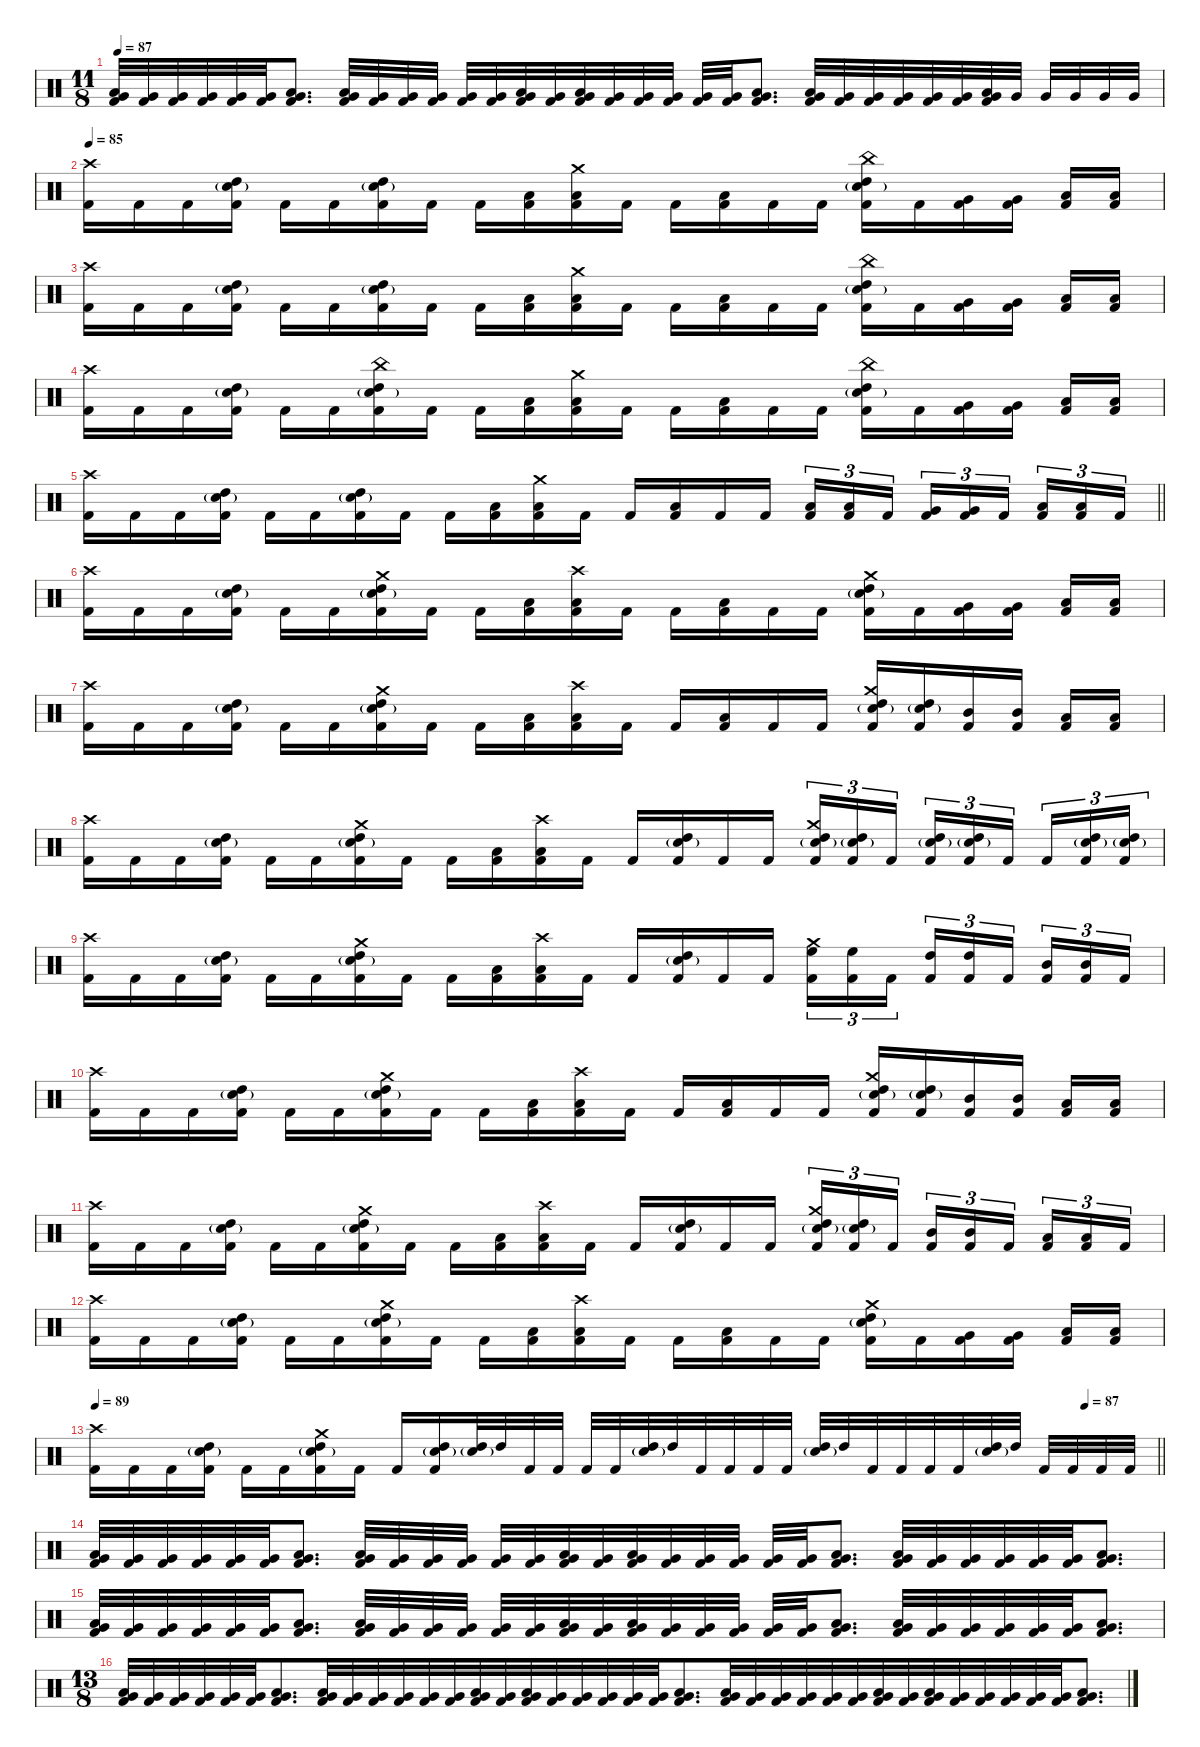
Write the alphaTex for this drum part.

\defaultSystemsLayout 4
\hideDynamics
\bracketExtendMode nobrackets
\singleTrackTrackNamePolicy hidden
\multiTrackTrackNamePolicy hidden
\otherSystemsTrackNameOrientation horizontal
\track ("Drums" "drm.") {instrument percussion}
\staff {score}
\articulation defaults
\ts (11 8)
\tempo 87
\clef neutral
\ks c
("Very Low Tom (hit)" "Low Floor Tom (hit)" "Kick (hit) 2").32{dy f beam Up} ("Very Low Tom (hit)" "Kick (hit) 2").32{beam Up} ("Very Low Tom (hit)" "Kick (hit) 2").32{beam Up} ("Very Low Tom (hit)" "Kick (hit) 2").32{beam Up} ("Very Low Tom (hit)" "Kick (hit) 2").32{beam Up} ("Very Low Tom (hit)" "Kick (hit) 2").32{beam Up} ("Very Low Tom (hit)" "Low Floor Tom (hit)" "Kick (hit) 2").8{d beam Up} ("Very Low Tom (hit)" "Low Floor Tom (hit)" "Kick (hit) 2").32{beam Up} ("Very Low Tom (hit)" "Kick (hit) 2").32{beam Up} ("Very Low Tom (hit)" "Kick (hit) 2").32{beam Up} ("Very Low Tom (hit)" "Kick (hit) 2").32{beam Up} ("Very Low Tom (hit)" "Kick (hit) 2").32{beam Up} ("Very Low Tom (hit)" "Kick (hit) 2").32{beam Up} ("Very Low Tom (hit)" "Low Floor Tom (hit)" "Kick (hit) 2").32{beam Up} ("Very Low Tom (hit)" "Kick (hit) 2").32{beam Up} ("Very Low Tom (hit)" "Low Floor Tom (hit)" "Kick (hit) 2").32{beam Up} ("Very Low Tom (hit)" "Kick (hit) 2").32{beam Up} ("Very Low Tom (hit)" "Kick (hit) 2").32{beam Up} ("Very Low Tom (hit)" "Kick (hit) 2").32{beam Up} ("Very Low Tom (hit)" "Kick (hit) 2").32{beam Up} ("Very Low Tom (hit)" "Kick (hit) 2").32{beam Up} ("Very Low Tom (hit)" "Low Floor Tom (hit)" "Kick (hit) 2").8{d beam Up} ("Very Low Tom (hit)" "Low Floor Tom (hit)" "Kick (hit) 2").32{beam Up} ("Very Low Tom (hit)" "Kick (hit) 2").32{beam Up} ("Very Low Tom (hit)" "Kick (hit) 2").32{beam Up} ("Very Low Tom (hit)" "Kick (hit) 2").32{beam Up} ("Very Low Tom (hit)" "Kick (hit) 2").32{beam Up} ("Very Low Tom (hit)" "Kick (hit) 2").32{beam Up} ("Very Low Tom (hit)" "Low Floor Tom (hit)" "Kick (hit) 2").32{beam Up} "Very Low Tom (hit)".32{beam Up} "Very Low Tom (hit)".32{beam Up} "Very Low Tom (hit)".32{beam Up} "Very Low Tom (hit)".32{beam Up} "Very Low Tom (hit)".32{beam Up} |
\tempo 85
("Crash high (hit)" "Kick (hit) 2").16{beam Down} "Kick (hit) 2".16{beam Down} "Kick (hit) 2".16{beam Down} ("High Tom (hit)" "Snare (hit) 2"{g} "Kick (hit) 2").16{beam Down} "Kick (hit) 2".16{beam Down} "Kick (hit) 2".16{beam Down} ("High Tom (hit)" "Snare (hit) 2"{g} "Kick (hit) 2").16{beam Down} "Kick (hit) 2".16{beam Down} "Kick (hit) 2".16{beam Down} ("Low Tom (hit)" "Kick (hit) 2").16{beam Down} ("Crash medium (hit)" "Low Tom (hit)" "Kick (hit) 2").16{beam Down} "Kick (hit) 2".16{beam Down} "Kick (hit) 2".16{beam Down} ("Low Tom (hit)" "Kick (hit) 2").16{beam Down} "Kick (hit) 2".16{beam Down} "Kick (hit) 2".16{beam Down} ("China (hit)" "High Tom (hit)" "Snare (hit) 2"{g} "Kick (hit) 2").16{beam Down} "Kick (hit) 2".16{beam Down} ("Very Low Tom (hit)" "Kick (hit) 2").16{beam Up} ("Very Low Tom (hit)" "Kick (hit) 2").16{beam Up} ("Low Floor Tom (hit)" "Kick (hit) 2").16{beam Up} ("Low Floor Tom (hit)" "Kick (hit) 2").16{beam Up} |
("Crash high (hit)" "Kick (hit) 2").16{beam Down} "Kick (hit) 2".16{beam Down} "Kick (hit) 2".16{beam Down} ("High Tom (hit)" "Snare (hit) 2"{g} "Kick (hit) 2").16{beam Down} "Kick (hit) 2".16{beam Down} "Kick (hit) 2".16{beam Down} ("High Tom (hit)" "Snare (hit) 2"{g} "Kick (hit) 2").16{beam Down} "Kick (hit) 2".16{beam Down} "Kick (hit) 2".16{beam Down} ("Low Tom (hit)" "Kick (hit) 2").16{beam Down} ("Crash medium (hit)" "Low Tom (hit)" "Kick (hit) 2").16{beam Down} "Kick (hit) 2".16{beam Down} "Kick (hit) 2".16{beam Down} ("Low Tom (hit)" "Kick (hit) 2").16{beam Down} "Kick (hit) 2".16{beam Down} "Kick (hit) 2".16{beam Down} ("China (hit)" "High Tom (hit)" "Snare (hit) 2"{g} "Kick (hit) 2").16{beam Down} "Kick (hit) 2".16{beam Down} ("Very Low Tom (hit)" "Kick (hit) 2").16{beam Up} ("Very Low Tom (hit)" "Kick (hit) 2").16{beam Up} ("Low Floor Tom (hit)" "Kick (hit) 2").16{beam Up} ("Low Floor Tom (hit)" "Kick (hit) 2").16{beam Up} |
("Crash high (hit)" "Kick (hit) 2").16{beam Down} "Kick (hit) 2".16{beam Down} "Kick (hit) 2".16{beam Down} ("High Tom (hit)" "Snare (hit) 2"{g} "Kick (hit) 2").16{beam Down} "Kick (hit) 2".16{beam Down} "Kick (hit) 2".16{beam Down} ("China (hit)" "High Tom (hit)" "Snare (hit) 2"{g} "Kick (hit) 2").16{beam Down} "Kick (hit) 2".16{beam Down} "Kick (hit) 2".16{beam Down} ("Low Tom (hit)" "Kick (hit) 2").16{beam Down} ("Crash medium (hit)" "Low Tom (hit)" "Kick (hit) 2").16{beam Down} "Kick (hit) 2".16{beam Down} "Kick (hit) 2".16{beam Down} ("Low Tom (hit)" "Kick (hit) 2").16{beam Down} "Kick (hit) 2".16{beam Down} "Kick (hit) 2".16{beam Down} ("China (hit)" "High Tom (hit)" "Snare (hit) 2"{g} "Kick (hit) 2").16{beam Down} "Kick (hit) 2".16{beam Down} ("Very Low Tom (hit)" "Kick (hit) 2").16{beam Up} ("Very Low Tom (hit)" "Kick (hit) 2").16{beam Up} ("Low Floor Tom (hit)" "Kick (hit) 2").16{beam Up} ("Low Floor Tom (hit)" "Kick (hit) 2").16{beam Up} |
\barLineRight lightlight
("Crash high (hit)" "Kick (hit) 2").16{beam Down} "Kick (hit) 2".16{beam Down} "Kick (hit) 2".16{beam Down} ("High Tom (hit)" "Snare (hit) 2"{g} "Kick (hit) 2").16{beam Down} "Kick (hit) 2".16{beam Down} "Kick (hit) 2".16{beam Down} ("High Tom (hit)" "Snare (hit) 2"{g} "Kick (hit) 2").16{beam Down} "Kick (hit) 2".16{beam Down} "Kick (hit) 2".16{beam Down} ("Low Tom (hit)" "Kick (hit) 2").16{beam Down} ("Crash medium (hit)" "Low Tom (hit)" "Kick (hit) 2").16{beam Down} "Kick (hit) 2".16{beam Down} "Kick (hit) 2".16{beam Up} ("Low Tom (hit)" "Kick (hit) 2").16{beam Up} "Kick (hit) 2".16{beam Up} "Kick (hit) 2".16{beam Up} ("Low Tom (hit)" "Kick (hit) 2").16{tu (3 2) beam Up} ("Low Tom (hit)" "Kick (hit) 2").16{tu (3 2) beam Up} "Kick (hit) 2".16{tu (3 2) beam Up} ("Very Low Tom (hit)" "Kick (hit) 2").16{tu (3 2) beam Up} ("Very Low Tom (hit)" "Kick (hit) 2").16{tu (3 2) beam Up} "Kick (hit) 2".16{tu (3 2) beam Up} ("Low Floor Tom (hit)" "Kick (hit) 2").16{tu (3 2) beam Up} ("Low Floor Tom (hit)" "Kick (hit) 2").16{tu (3 2) beam Up} "Kick (hit) 2".16{tu (3 2) beam Up} |
\section ("" "")
("Crash high (hit)" "Kick (hit) 2").16{beam Down} "Kick (hit) 2".16{beam Down} "Kick (hit) 2".16{beam Down} ("High Tom (hit)" "Snare (hit) 2"{g} "Kick (hit) 2").16{beam Down} "Kick (hit) 2".16{beam Down} "Kick (hit) 2".16{beam Down} ("Crash medium (hit)" "High Tom (hit)" "Snare (hit) 2"{g} "Kick (hit) 2").16{beam Down} "Kick (hit) 2".16{beam Down} "Kick (hit) 2".16{beam Down} ("Low Tom (hit)" "Kick (hit) 2").16{beam Down} ("Crash high (hit)" "Low Tom (hit)" "Kick (hit) 2").16{beam Down} "Kick (hit) 2".16{beam Down} "Kick (hit) 2".16{beam Down} ("Low Tom (hit)" "Kick (hit) 2").16{beam Down} "Kick (hit) 2".16{beam Down} "Kick (hit) 2".16{beam Down} ("Crash medium (hit)" "High Tom (hit)" "Snare (hit) 2"{g} "Kick (hit) 2").16{beam Down} "Kick (hit) 2".16{beam Down} ("Very Low Tom (hit)" "Kick (hit) 2").16{beam Up} ("Very Low Tom (hit)" "Kick (hit) 2").16{beam Up} ("Low Floor Tom (hit)" "Kick (hit) 2").16{beam Up} ("Low Floor Tom (hit)" "Kick (hit) 2").16{beam Up} |
("Crash high (hit)" "Kick (hit) 2").16{beam Down} "Kick (hit) 2".16{beam Down} "Kick (hit) 2".16{beam Down} ("High Tom (hit)" "Snare (hit) 2"{g} "Kick (hit) 2").16{beam Down} "Kick (hit) 2".16{beam Down} "Kick (hit) 2".16{beam Down} ("Crash medium (hit)" "High Tom (hit)" "Snare (hit) 2"{g} "Kick (hit) 2").16{beam Down} "Kick (hit) 2".16{beam Down} "Kick (hit) 2".16{beam Down} ("Low Tom (hit)" "Kick (hit) 2").16{beam Down} ("Crash high (hit)" "Low Tom (hit)" "Kick (hit) 2").16{beam Down} "Kick (hit) 2".16{beam Down} "Kick (hit) 2".16{beam Up} ("Low Tom (hit)" "Kick (hit) 2").16{beam Up} "Kick (hit) 2".16{beam Up} "Kick (hit) 2".16{beam Up} ("Crash medium (hit)" "High Tom (hit)" "Snare (hit) 2"{g} "Kick (hit) 2").16{beam Up} ("High Tom (hit)" "Snare (hit) 2"{g} "Kick (hit) 2").16{beam Up} ("Mid Tom (hit)" "Kick (hit) 2").16{beam Up} ("Mid Tom (hit)" "Kick (hit) 2").16{beam Up} ("Low Tom (hit)" "Kick (hit) 2").16{beam Up} ("Low Tom (hit)" "Kick (hit) 2").16{beam Up} |
("Crash high (hit)" "Kick (hit) 2").16{beam Down} "Kick (hit) 2".16{beam Down} "Kick (hit) 2".16{beam Down} ("High Tom (hit)" "Snare (hit) 2"{g} "Kick (hit) 2").16{beam Down} "Kick (hit) 2".16{beam Down} "Kick (hit) 2".16{beam Down} ("Crash medium (hit)" "High Tom (hit)" "Snare (hit) 2"{g} "Kick (hit) 2").16{beam Down} "Kick (hit) 2".16{beam Down} "Kick (hit) 2".16{beam Down} ("Low Tom (hit)" "Kick (hit) 2").16{beam Down} ("Crash high (hit)" "Low Tom (hit)" "Kick (hit) 2").16{beam Down} "Kick (hit) 2".16{beam Down} "Kick (hit) 2".16{beam Up} ("High Tom (hit)" "Snare (hit) 2"{g} "Kick (hit) 2").16{beam Up} "Kick (hit) 2".16{beam Up} "Kick (hit) 2".16{beam Up} ("Crash medium (hit)" "High Tom (hit)" "Snare (hit) 2"{g} "Kick (hit) 2").16{tu (3 2) beam Up} ("High Tom (hit)" "Snare (hit) 2"{g} "Kick (hit) 2").16{tu (3 2) beam Up} "Kick (hit) 2".16{tu (3 2) beam Up} ("High Tom (hit)" "Snare (hit) 2"{g} "Kick (hit) 2").16{tu (3 2) beam Up} ("High Tom (hit)" "Snare (hit) 2"{g} "Kick (hit) 2").16{tu (3 2) beam Up} "Kick (hit) 2".16{tu (3 2) beam Up} "Kick (hit) 2".16{tu (3 2) beam Up} ("High Tom (hit)" "Snare (hit) 2"{g} "Kick (hit) 2").16{tu (3 2) beam Up} ("High Tom (hit)" "Snare (hit) 2"{g} "Kick (hit) 2").16{tu (3 2) beam Up} |
("Crash high (hit)" "Kick (hit) 2").16{beam Down} "Kick (hit) 2".16{beam Down} "Kick (hit) 2".16{beam Down} ("High Tom (hit)" "Snare (hit) 2"{g} "Kick (hit) 2").16{beam Down} "Kick (hit) 2".16{beam Down} "Kick (hit) 2".16{beam Down} ("Crash medium (hit)" "High Tom (hit)" "Snare (hit) 2"{g} "Kick (hit) 2").16{beam Down} "Kick (hit) 2".16{beam Down} "Kick (hit) 2".16{beam Down} ("Low Tom (hit)" "Kick (hit) 2").16{beam Down} ("Crash high (hit)" "Low Tom (hit)" "Kick (hit) 2").16{beam Down} "Kick (hit) 2".16{beam Down} "Kick (hit) 2".16{beam Up} ("High Tom (hit)" "Snare (hit) 2"{g} "Kick (hit) 2").16{beam Up} "Kick (hit) 2".16{beam Up} "Kick (hit) 2".16{beam Up} ("Crash medium (hit)" "High Floor Tom (hit)" "Kick (hit) 2").16{tu (3 2) beam Down} ("High Floor Tom (hit)" "Kick (hit) 2").16{tu (3 2) beam Down} "Kick (hit) 2".16{tu (3 2) beam Down} ("High Tom (hit)" "Kick (hit) 2").16{tu (3 2) beam Up} ("High Tom (hit)" "Kick (hit) 2").16{tu (3 2) beam Up} "Kick (hit) 2".16{tu (3 2) beam Up} ("Mid Tom (hit)" "Kick (hit) 2").16{tu (3 2) beam Up} ("Mid Tom (hit)" "Kick (hit) 2").16{tu (3 2) beam Up} "Kick (hit) 2".16{tu (3 2) beam Up} |
("Crash high (hit)" "Kick (hit) 2").16{beam Down} "Kick (hit) 2".16{beam Down} "Kick (hit) 2".16{beam Down} ("High Tom (hit)" "Snare (hit) 2"{g} "Kick (hit) 2").16{beam Down} "Kick (hit) 2".16{beam Down} "Kick (hit) 2".16{beam Down} ("Crash medium (hit)" "High Tom (hit)" "Snare (hit) 2"{g} "Kick (hit) 2").16{beam Down} "Kick (hit) 2".16{beam Down} "Kick (hit) 2".16{beam Down} ("Low Tom (hit)" "Kick (hit) 2").16{beam Down} ("Crash high (hit)" "Low Tom (hit)" "Kick (hit) 2").16{beam Down} "Kick (hit) 2".16{beam Down} "Kick (hit) 2".16{beam Up} ("Low Tom (hit)" "Kick (hit) 2").16{beam Up} "Kick (hit) 2".16{beam Up} "Kick (hit) 2".16{beam Up} ("Crash medium (hit)" "High Tom (hit)" "Snare (hit) 2"{g} "Kick (hit) 2").16{beam Up} ("High Tom (hit)" "Snare (hit) 2"{g} "Kick (hit) 2").16{beam Up} ("Mid Tom (hit)" "Kick (hit) 2").16{beam Up} ("Mid Tom (hit)" "Kick (hit) 2").16{beam Up} ("Low Tom (hit)" "Kick (hit) 2").16{beam Up} ("Low Tom (hit)" "Kick (hit) 2").16{beam Up} |
("Crash high (hit)" "Kick (hit) 2").16{beam Down} "Kick (hit) 2".16{beam Down} "Kick (hit) 2".16{beam Down} ("High Tom (hit)" "Snare (hit) 2"{g} "Kick (hit) 2").16{beam Down} "Kick (hit) 2".16{beam Down} "Kick (hit) 2".16{beam Down} ("Crash medium (hit)" "High Tom (hit)" "Snare (hit) 2"{g} "Kick (hit) 2").16{beam Down} "Kick (hit) 2".16{beam Down} "Kick (hit) 2".16{beam Down} ("Low Tom (hit)" "Kick (hit) 2").16{beam Down} ("Crash high (hit)" "Low Tom (hit)" "Kick (hit) 2").16{beam Down} "Kick (hit) 2".16{beam Down} "Kick (hit) 2".16{beam Up} ("High Tom (hit)" "Snare (hit) 2"{g} "Kick (hit) 2").16{beam Up} "Kick (hit) 2".16{beam Up} "Kick (hit) 2".16{beam Up} ("Crash medium (hit)" "High Tom (hit)" "Snare (hit) 2"{g} "Kick (hit) 2").16{tu (3 2) beam Up} ("High Tom (hit)" "Snare (hit) 2"{g} "Kick (hit) 2").16{tu (3 2) beam Up} "Kick (hit) 2".16{tu (3 2) beam Up} ("Mid Tom (hit)" "Kick (hit) 2").16{tu (3 2) beam Up} ("Mid Tom (hit)" "Kick (hit) 2").16{tu (3 2) beam Up} "Kick (hit) 2".16{tu (3 2) beam Up} ("Low Tom (hit)" "Kick (hit) 2").16{tu (3 2) beam Up} ("Low Tom (hit)" "Kick (hit) 2").16{tu (3 2) beam Up} "Kick (hit) 2".16{tu (3 2) beam Up} |
("Crash high (hit)" "Kick (hit) 2").16{beam Down} "Kick (hit) 2".16{beam Down} "Kick (hit) 2".16{beam Down} ("High Tom (hit)" "Snare (hit) 2"{g} "Kick (hit) 2").16{beam Down} "Kick (hit) 2".16{beam Down} "Kick (hit) 2".16{beam Down} ("Crash medium (hit)" "High Tom (hit)" "Snare (hit) 2"{g} "Kick (hit) 2").16{beam Down} "Kick (hit) 2".16{beam Down} "Kick (hit) 2".16{beam Down} ("Low Tom (hit)" "Kick (hit) 2").16{beam Down} ("Crash high (hit)" "Low Tom (hit)" "Kick (hit) 2").16{beam Down} "Kick (hit) 2".16{beam Down} "Kick (hit) 2".16{beam Down} ("Low Tom (hit)" "Kick (hit) 2").16{beam Down} "Kick (hit) 2".16{beam Down} "Kick (hit) 2".16{beam Down} ("Crash medium (hit)" "High Tom (hit)" "Snare (hit) 2"{g} "Kick (hit) 2").16{beam Down} "Kick (hit) 2".16{beam Down} ("Very Low Tom (hit)" "Kick (hit) 2").16{beam Up} ("Very Low Tom (hit)" "Kick (hit) 2").16{beam Up} ("Low Floor Tom (hit)" "Kick (hit) 2").16{beam Up} ("Low Floor Tom (hit)" "Kick (hit) 2").16{beam Up} |
\tempo 89
\tempo (87 0.931818)
\barLineRight lightlight
("Crash high (hit)" "Kick (hit) 2").16{beam Down} "Kick (hit) 2".16{beam Down} "Kick (hit) 2".16{beam Down} ("High Tom (hit)" "Snare (hit) 2"{g} "Kick (hit) 2").16{beam Down} "Kick (hit) 2".16{beam Down} "Kick (hit) 2".16{beam Down} ("Crash medium (hit)" "High Tom (hit)" "Snare (hit) 2"{g} "Kick (hit) 2").16{beam Up} "Kick (hit) 2".16{beam Up} "Kick (hit) 2".16{beam Up} ("High Tom (hit)" "Snare (hit) 2"{g} "Kick (hit) 2").16{beam Up} ("High Tom (hit)" "Snare (hit) 2"{g}).32{beam Up} "High Tom (hit)".32{beam Up} "Kick (hit) 2".32{beam Up} "Kick (hit) 2".32{beam Up} "Kick (hit) 2".32{beam Up} "Kick (hit) 2".32{beam Up} ("High Tom (hit)" "Snare (hit) 2"{g}).32{beam Up} "High Tom (hit)".32{beam Up} "Kick (hit) 2".32{beam Up} "Kick (hit) 2".32{beam Up} "Kick (hit) 2".32{beam Up} "Kick (hit) 2".32{beam Up} ("High Tom (hit)" "Snare (hit) 2"{g}).32{beam Up} "High Tom (hit)".32{beam Up} "Kick (hit) 2".32{beam Up} "Kick (hit) 2".32{beam Up} "Kick (hit) 2".32{beam Up} "Kick (hit) 2".32{beam Up} ("High Tom (hit)" "Snare (hit) 2"{g}).32{beam Up} "High Tom (hit)".32{beam Up} "Kick (hit) 2".32{beam Up} "Kick (hit) 2".32{beam Up} "Kick (hit) 2".32{beam Up} "Kick (hit) 2".32{beam Up} |
\section ("" "")
("Very Low Tom (hit)" "Low Floor Tom (hit)" "Kick (hit) 2").32{beam Up} ("Very Low Tom (hit)" "Kick (hit) 2").32{beam Up} ("Very Low Tom (hit)" "Kick (hit) 2").32{beam Up} ("Very Low Tom (hit)" "Kick (hit) 2").32{beam Up} ("Very Low Tom (hit)" "Kick (hit) 2").32{beam Up} ("Very Low Tom (hit)" "Kick (hit) 2").32{beam Up} ("Very Low Tom (hit)" "Low Floor Tom (hit)" "Kick (hit) 2").8{d beam Up} ("Very Low Tom (hit)" "Low Floor Tom (hit)" "Kick (hit) 2").32{beam Up} ("Very Low Tom (hit)" "Kick (hit) 2").32{beam Up} ("Very Low Tom (hit)" "Kick (hit) 2").32{beam Up} ("Very Low Tom (hit)" "Kick (hit) 2").32{beam Up} ("Very Low Tom (hit)" "Kick (hit) 2").32{beam Up} ("Very Low Tom (hit)" "Kick (hit) 2").32{beam Up} ("Very Low Tom (hit)" "Low Floor Tom (hit)" "Kick (hit) 2").32{beam Up} ("Very Low Tom (hit)" "Kick (hit) 2").32{beam Up} ("Very Low Tom (hit)" "Low Floor Tom (hit)" "Kick (hit) 2").32{beam Up} ("Very Low Tom (hit)" "Kick (hit) 2").32{beam Up} ("Very Low Tom (hit)" "Kick (hit) 2").32{beam Up} ("Very Low Tom (hit)" "Kick (hit) 2").32{beam Up} ("Very Low Tom (hit)" "Kick (hit) 2").32{beam Up} ("Very Low Tom (hit)" "Kick (hit) 2").32{beam Up} ("Very Low Tom (hit)" "Low Floor Tom (hit)" "Kick (hit) 2").8{d beam Up} ("Very Low Tom (hit)" "Low Floor Tom (hit)" "Kick (hit) 2").32{beam Up} ("Very Low Tom (hit)" "Kick (hit) 2").32{beam Up} ("Very Low Tom (hit)" "Kick (hit) 2").32{beam Up} ("Very Low Tom (hit)" "Kick (hit) 2").32{beam Up} ("Very Low Tom (hit)" "Kick (hit) 2").32{beam Up} ("Very Low Tom (hit)" "Kick (hit) 2").32{beam Up} ("Very Low Tom (hit)" "Low Floor Tom (hit)" "Kick (hit) 2").8{d beam Up} |
("Very Low Tom (hit)" "Low Floor Tom (hit)" "Kick (hit) 2").32{beam Up} ("Very Low Tom (hit)" "Kick (hit) 2").32{beam Up} ("Very Low Tom (hit)" "Kick (hit) 2").32{beam Up} ("Very Low Tom (hit)" "Kick (hit) 2").32{beam Up} ("Very Low Tom (hit)" "Kick (hit) 2").32{beam Up} ("Very Low Tom (hit)" "Kick (hit) 2").32{beam Up} ("Very Low Tom (hit)" "Low Floor Tom (hit)" "Kick (hit) 2").8{d beam Up} ("Very Low Tom (hit)" "Low Floor Tom (hit)" "Kick (hit) 2").32{beam Up} ("Very Low Tom (hit)" "Kick (hit) 2").32{beam Up} ("Very Low Tom (hit)" "Kick (hit) 2").32{beam Up} ("Very Low Tom (hit)" "Kick (hit) 2").32{beam Up} ("Very Low Tom (hit)" "Kick (hit) 2").32{beam Up} ("Very Low Tom (hit)" "Kick (hit) 2").32{beam Up} ("Very Low Tom (hit)" "Low Floor Tom (hit)" "Kick (hit) 2").32{beam Up} ("Very Low Tom (hit)" "Kick (hit) 2").32{beam Up} ("Very Low Tom (hit)" "Low Floor Tom (hit)" "Kick (hit) 2").32{beam Up} ("Very Low Tom (hit)" "Kick (hit) 2").32{beam Up} ("Very Low Tom (hit)" "Kick (hit) 2").32{beam Up} ("Very Low Tom (hit)" "Kick (hit) 2").32{beam Up} ("Very Low Tom (hit)" "Kick (hit) 2").32{beam Up} ("Very Low Tom (hit)" "Kick (hit) 2").32{beam Up} ("Very Low Tom (hit)" "Low Floor Tom (hit)" "Kick (hit) 2").8{d beam Up} ("Very Low Tom (hit)" "Low Floor Tom (hit)" "Kick (hit) 2").32{beam Up} ("Very Low Tom (hit)" "Kick (hit) 2").32{beam Up} ("Very Low Tom (hit)" "Kick (hit) 2").32{beam Up} ("Very Low Tom (hit)" "Kick (hit) 2").32{beam Up} ("Very Low Tom (hit)" "Kick (hit) 2").32{beam Up} ("Very Low Tom (hit)" "Kick (hit) 2").32{beam Up} ("Very Low Tom (hit)" "Low Floor Tom (hit)" "Kick (hit) 2").8{d beam Up} |
\ts (13 8)
\beaming (8 13)
("Very Low Tom (hit)" "Low Floor Tom (hit)" "Kick (hit) 2").32{beam Up} ("Very Low Tom (hit)" "Kick (hit) 2").32{beam Up} ("Very Low Tom (hit)" "Kick (hit) 2").32{beam Up} ("Very Low Tom (hit)" "Kick (hit) 2").32{beam Up} ("Very Low Tom (hit)" "Kick (hit) 2").32{beam Up} ("Very Low Tom (hit)" "Kick (hit) 2").32{beam Up} ("Very Low Tom (hit)" "Low Floor Tom (hit)" "Kick (hit) 2").8{d beam Up} ("Very Low Tom (hit)" "Low Floor Tom (hit)" "Kick (hit) 2").32{beam Up} ("Very Low Tom (hit)" "Kick (hit) 2").32{beam Up} ("Very Low Tom (hit)" "Kick (hit) 2").32{beam Up} ("Very Low Tom (hit)" "Kick (hit) 2").32{beam Up} ("Very Low Tom (hit)" "Kick (hit) 2").32{beam Up} ("Very Low Tom (hit)" "Kick (hit) 2").32{beam Up} ("Very Low Tom (hit)" "Low Floor Tom (hit)" "Kick (hit) 2").32{beam Up} ("Very Low Tom (hit)" "Kick (hit) 2").32{beam Up} ("Very Low Tom (hit)" "Low Floor Tom (hit)" "Kick (hit) 2").32{beam Up} ("Very Low Tom (hit)" "Kick (hit) 2").32{beam Up} ("Very Low Tom (hit)" "Kick (hit) 2").32{beam Up} ("Very Low Tom (hit)" "Kick (hit) 2").32{beam Up} ("Very Low Tom (hit)" "Kick (hit) 2").32{beam Up} ("Very Low Tom (hit)" "Kick (hit) 2").32{beam Up} ("Very Low Tom (hit)" "Low Floor Tom (hit)" "Kick (hit) 2").8{d beam Up} ("Very Low Tom (hit)" "Low Floor Tom (hit)" "Kick (hit) 2").32{beam Up} ("Very Low Tom (hit)" "Kick (hit) 2").32{beam Up} ("Very Low Tom (hit)" "Kick (hit) 2").32{beam Up} ("Very Low Tom (hit)" "Kick (hit) 2").32{beam Up} ("Very Low Tom (hit)" "Kick (hit) 2").32{beam Up} ("Very Low Tom (hit)" "Kick (hit) 2").32{beam Up} ("Very Low Tom (hit)" "Low Floor Tom (hit)" "Kick (hit) 2").32{beam Up} ("Very Low Tom (hit)" "Kick (hit) 2").32{beam Up} ("Very Low Tom (hit)" "Low Floor Tom (hit)" "Kick (hit) 2").32{beam Up} ("Very Low Tom (hit)" "Kick (hit) 2").32{beam Up} ("Very Low Tom (hit)" "Kick (hit) 2").32{beam Up} ("Very Low Tom (hit)" "Kick (hit) 2").32{beam Up} ("Very Low Tom (hit)" "Kick (hit) 2").32{beam Up} ("Very Low Tom (hit)" "Kick (hit) 2").32{beam Up} ("Very Low Tom (hit)" "Low Floor Tom (hit)" "Kick (hit) 2").8{d beam Up}
